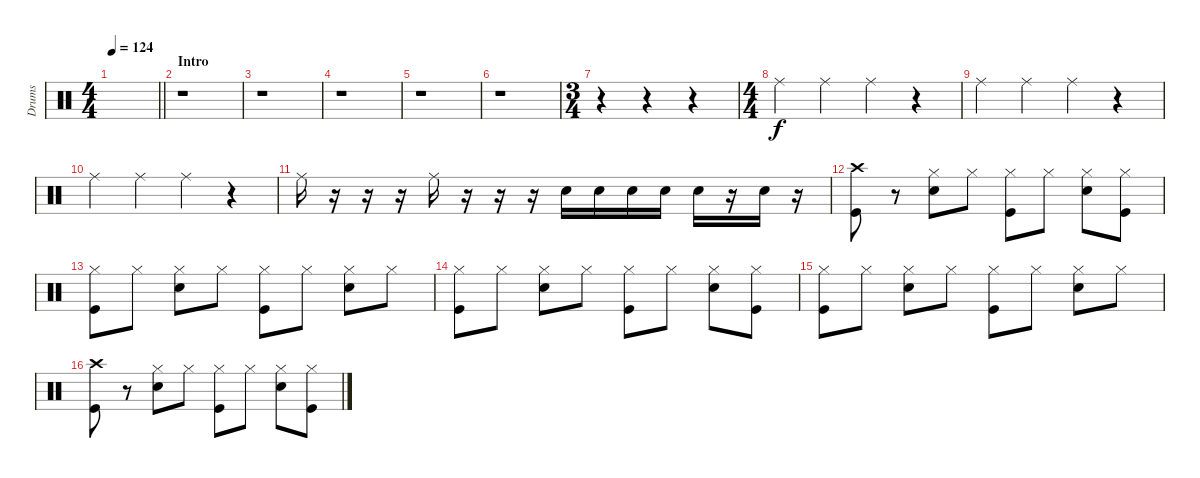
\track ("Drums" "Drums") {instrument percussion}
\staff {score}
\articulation defaults
\ts (4 4)
\tempo 124
\clef neutral
\barLineRight lightlight
\ks c
|
\section ("" "Intro")
r.1 |
r.1 |
r.1 |
r.1 |
r.1 |
\ts (3 4)
r.4 r.4 r.4 |
\ts (4 4)
"Ride (middle)".4 "Ride (middle)".4 "Ride (middle)".4 r.4 |
"Ride (middle)".4 "Ride (middle)".4 "Ride (middle)".4 r.4 |
"Ride (middle)".4 "Ride (middle)".4 "Ride (middle)".4 r.4 |
"Ride (middle)".16 r.16 r.16 r.16 "Ride (middle)".16 r.16 r.16 r.16 "Snare (hit) 2".16 "Snare (hit) 2".16 "Snare (hit) 2".16 "Snare (hit) 2".16 "Snare (hit) 2".16 r.16 "Snare (hit) 2".16 r.16 |
("Crash high (hit)" "Kick (hit)").8 r.8 ("Hi-Hat (closed)" "Snare (hit) 2").8 "Hi-Hat (closed)".8 ("Hi-Hat (closed)" "Kick (hit)").8 "Hi-Hat (closed)".8 ("Hi-Hat (closed)" "Snare (hit) 2").8 ("Hi-Hat (closed)" "Kick (hit)").8 |
("Hi-Hat (closed)" "Kick (hit)").8 "Hi-Hat (closed)".8 ("Hi-Hat (closed)" "Snare (hit) 2").8 "Hi-Hat (closed)".8 ("Hi-Hat (closed)" "Kick (hit)").8 "Hi-Hat (closed)".8 ("Hi-Hat (closed)" "Snare (hit) 2").8 "Hi-Hat (closed)".8 |
("Hi-Hat (closed)" "Kick (hit)").8 "Hi-Hat (closed)".8 ("Hi-Hat (closed)" "Snare (hit) 2").8 "Hi-Hat (closed)".8 ("Hi-Hat (closed)" "Kick (hit)").8 "Hi-Hat (closed)".8 ("Hi-Hat (closed)" "Snare (hit) 2").8 ("Hi-Hat (closed)" "Kick (hit)").8 |
("Hi-Hat (closed)" "Kick (hit)").8 "Hi-Hat (closed)".8 ("Hi-Hat (closed)" "Snare (hit) 2").8 "Hi-Hat (closed)".8 ("Hi-Hat (closed)" "Kick (hit)").8 "Hi-Hat (closed)".8 ("Hi-Hat (closed)" "Snare (hit) 2").8 "Hi-Hat (closed)".8 |
("Crash high (hit)" "Kick (hit)").8 r.8 ("Hi-Hat (closed)" "Snare (hit) 2").8 "Hi-Hat (closed)".8 ("Hi-Hat (closed)" "Kick (hit)").8 "Hi-Hat (closed)".8 ("Hi-Hat (closed)" "Snare (hit) 2").8 ("Hi-Hat (closed)" "Kick (hit)").8
